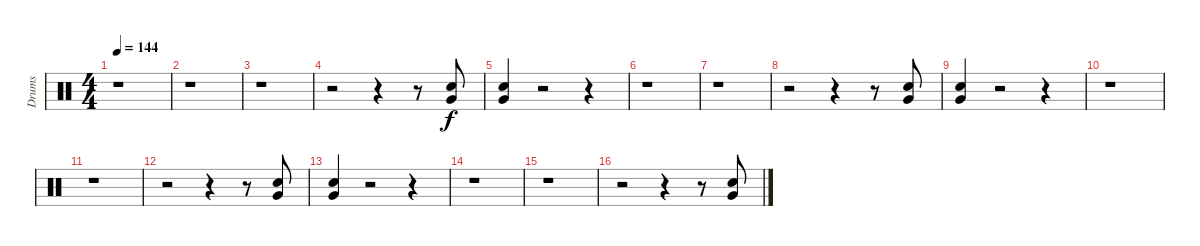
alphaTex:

\track ("Drums" "Drums") {instrument percussion}
\staff {score}
\articulation defaults
\ts (4 4)
\tempo 144
\clef neutral
\ks c
r.1{dy f} |
r.1 |
r.1 |
r.2 r.4 r.8 ("Snare (hit) 2" "Very Low Tom (hit)").8 |
("Snare (hit) 2" "Very Low Tom (hit)").4 r.2 r.4 |
r.1 |
r.1 |
r.2 r.4 r.8 ("Snare (hit) 2" "Very Low Tom (hit)").8 |
("Snare (hit) 2" "Very Low Tom (hit)").4 r.2 r.4 |
r.1 |
r.1 |
r.2 r.4 r.8 ("Snare (hit) 2" "Very Low Tom (hit)").8 |
("Snare (hit) 2" "Very Low Tom (hit)").4 r.2 r.4 |
r.1 |
r.1 |
r.2 r.4 r.8 ("Snare (hit) 2" "Very Low Tom (hit)").8
